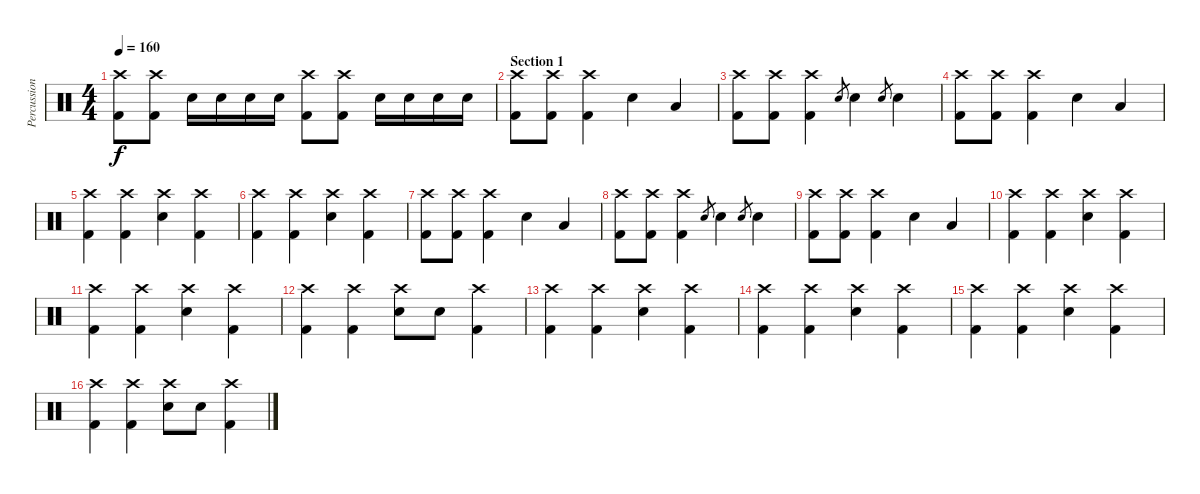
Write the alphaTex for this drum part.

\track ("Percussions" "Percussion") {instrument percussion}
\staff {score}
\articulation defaults
\ts (4 4)
\tempo 160
\clef neutral
\ks c
("Crash high (hit)" "Kick (hit) 2").8{dy f} ("Crash high (hit)" "Kick (hit) 2").8 "Snare (hit) 2".16 "Snare (hit) 2".16 "Snare (hit) 2".16 "Snare (hit) 2".16 ("Crash high (hit)" "Kick (hit) 2").8 ("Crash high (hit)" "Kick (hit) 2").8 "Snare (hit) 2".16 "Snare (hit) 2".16 "Snare (hit) 2".16 "Snare (hit) 2".16 |
\section ("" "Section 1")
("Crash high (hit)" "Kick (hit) 2").8 ("Crash high (hit)" "Kick (hit) 2").8 ("Crash high (hit)" "Kick (hit) 2").4 "Snare (hit) 2".4 "Low Tom (hit)".4 |
("Crash high (hit)" "Kick (hit) 2").8 ("Crash high (hit)" "Kick (hit) 2").8 ("Crash high (hit)" "Kick (hit) 2").4 "Snare (hit) 2".8{gr} "Snare (hit) 2".4 "Snare (hit) 2".8{gr} "Snare (hit) 2".4 |
("Crash high (hit)" "Kick (hit) 2").8 ("Crash high (hit)" "Kick (hit) 2").8 ("Crash high (hit)" "Kick (hit) 2").4 "Snare (hit) 2".4 "Low Tom (hit)".4 |
("Crash high (hit)" "Kick (hit) 2").4 ("Crash high (hit)" "Kick (hit) 2").4 ("Crash high (hit)" "Snare (hit) 2").4 ("Crash high (hit)" "Kick (hit) 2").4 |
("Crash high (hit)" "Kick (hit) 2").4 ("Crash high (hit)" "Kick (hit) 2").4 ("Crash high (hit)" "Snare (hit) 2").4 ("Crash high (hit)" "Kick (hit) 2").4 |
("Crash high (hit)" "Kick (hit) 2").8 ("Crash high (hit)" "Kick (hit) 2").8 ("Crash high (hit)" "Kick (hit) 2").4 "Snare (hit) 2".4 "Low Tom (hit)".4 |
("Crash high (hit)" "Kick (hit) 2").8 ("Crash high (hit)" "Kick (hit) 2").8 ("Crash high (hit)" "Kick (hit) 2").4 "Snare (hit) 2".8{gr} "Snare (hit) 2".4 "Snare (hit) 2".8{gr} "Snare (hit) 2".4 |
("Crash high (hit)" "Kick (hit) 2").8 ("Crash high (hit)" "Kick (hit) 2").8 ("Crash high (hit)" "Kick (hit) 2").4 "Snare (hit) 2".4 "Low Tom (hit)".4 |
("Crash high (hit)" "Kick (hit) 2").4 ("Crash high (hit)" "Kick (hit) 2").4 ("Crash high (hit)" "Snare (hit) 2").4 ("Crash high (hit)" "Kick (hit) 2").4 |
("Crash high (hit)" "Kick (hit) 2").4 ("Crash high (hit)" "Kick (hit) 2").4 ("Crash high (hit)" "Snare (hit) 2").4 ("Crash high (hit)" "Kick (hit) 2").4 |
("Crash high (hit)" "Kick (hit) 2").4 ("Crash high (hit)" "Kick (hit) 2").4 ("Crash high (hit)" "Snare (hit) 2").8 "Snare (hit) 2".8 ("Crash high (hit)" "Kick (hit) 2").4 |
("Crash high (hit)" "Kick (hit) 2").4 ("Crash high (hit)" "Kick (hit) 2").4 ("Crash high (hit)" "Snare (hit) 2").4 ("Crash high (hit)" "Kick (hit) 2").4 |
("Crash high (hit)" "Kick (hit) 2").4 ("Crash high (hit)" "Kick (hit) 2").4 ("Crash high (hit)" "Snare (hit) 2").4 ("Crash high (hit)" "Kick (hit) 2").4 |
("Crash high (hit)" "Kick (hit) 2").4 ("Crash high (hit)" "Kick (hit) 2").4 ("Crash high (hit)" "Snare (hit) 2").4 ("Crash high (hit)" "Kick (hit) 2").4 |
("Crash high (hit)" "Kick (hit) 2").4 ("Crash high (hit)" "Kick (hit) 2").4 ("Crash high (hit)" "Snare (hit) 2").8 "Snare (hit) 2".8 ("Crash high (hit)" "Kick (hit) 2").4
